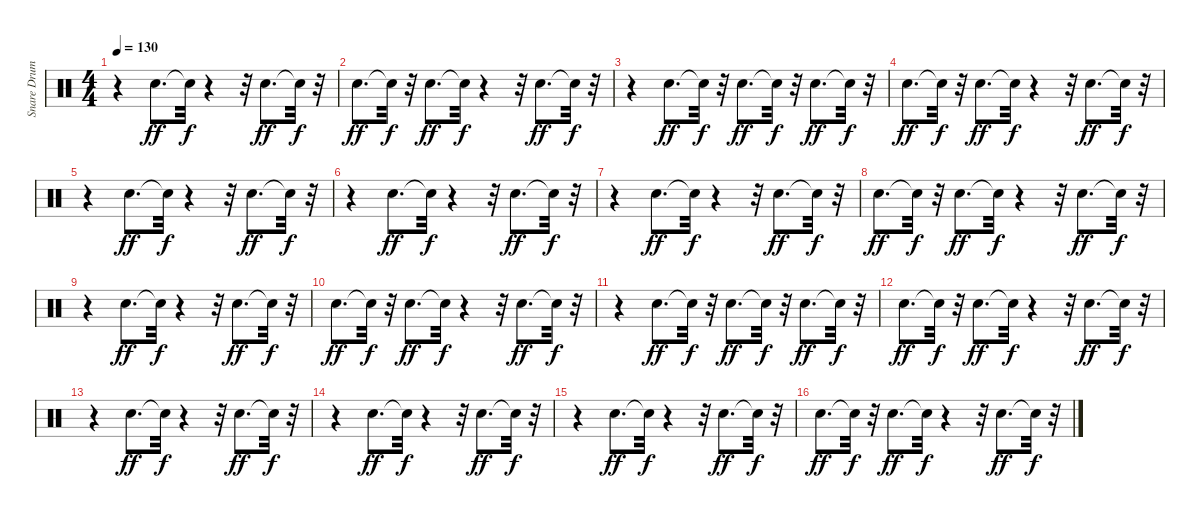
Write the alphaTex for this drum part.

\track ("Snare Drum" "Snare Drum") {instrument percussion}
\staff {score}
\articulation defaults
\ts (4 4)
\tempo 130
\clef neutral
\ks c
r.4{dy f} "Snare (hit) 2".8{d dy ff} "Snare (hit)"{t}.32{dy f} r.4 r.32 "Snare (hit) 2".8{d dy ff} "Snare (hit)"{t}.32{dy f} r.32 |
"Snare (hit) 2".8{d dy ff} "Snare (hit)"{t}.32{dy f} r.32 "Snare (hit) 2".8{d dy ff} "Snare (hit)"{t}.32{dy f} r.4 r.32 "Snare (hit) 2".8{d dy ff} "Snare (hit)"{t}.32{dy f} r.32 |
r.4 "Snare (hit) 2".8{d dy ff} "Snare (hit)"{t}.32{dy f} r.32 "Snare (hit) 2".8{d dy ff} "Snare (hit)"{t}.32{dy f} r.32 "Snare (hit) 2".8{d dy ff} "Snare (hit)"{t}.32{dy f} r.32 |
"Snare (hit) 2".8{d dy ff} "Snare (hit)"{t}.32{dy f} r.32 "Snare (hit) 2".8{d dy ff} "Snare (hit)"{t}.32{dy f} r.4 r.32 "Snare (hit) 2".8{d dy ff} "Snare (hit)"{t}.32{dy f} r.32 |
r.4 "Snare (hit) 2".8{d dy ff} "Snare (hit)"{t}.32{dy f} r.4 r.32 "Snare (hit) 2".8{d dy ff} "Snare (hit)"{t}.32{dy f} r.32 |
r.4 "Snare (hit) 2".8{d dy ff} "Snare (hit)"{t}.32{dy f} r.4 r.32 "Snare (hit) 2".8{d dy ff} "Snare (hit)"{t}.32{dy f} r.32 |
r.4 "Snare (hit) 2".8{d dy ff} "Snare (hit)"{t}.32{dy f} r.4 r.32 "Snare (hit) 2".8{d dy ff} "Snare (hit)"{t}.32{dy f} r.32 |
"Snare (hit) 2".8{d dy ff} "Snare (hit)"{t}.32{dy f} r.32 "Snare (hit) 2".8{d dy ff} "Snare (hit)"{t}.32{dy f} r.4 r.32 "Snare (hit) 2".8{d dy ff} "Snare (hit)"{t}.32{dy f} r.32 |
r.4 "Snare (hit) 2".8{d dy ff} "Snare (hit)"{t}.32{dy f} r.4 r.32 "Snare (hit) 2".8{d dy ff} "Snare (hit)"{t}.32{dy f} r.32 |
"Snare (hit) 2".8{d dy ff} "Snare (hit)"{t}.32{dy f} r.32 "Snare (hit) 2".8{d dy ff} "Snare (hit)"{t}.32{dy f} r.4 r.32 "Snare (hit) 2".8{d dy ff} "Snare (hit)"{t}.32{dy f} r.32 |
r.4 "Snare (hit) 2".8{d dy ff} "Snare (hit)"{t}.32{dy f} r.32 "Snare (hit) 2".8{d dy ff} "Snare (hit)"{t}.32{dy f} r.32 "Snare (hit) 2".8{d dy ff} "Snare (hit)"{t}.32{dy f} r.32 |
"Snare (hit) 2".8{d dy ff} "Snare (hit)"{t}.32{dy f} r.32 "Snare (hit) 2".8{d dy ff} "Snare (hit)"{t}.32{dy f} r.4 r.32 "Snare (hit) 2".8{d dy ff} "Snare (hit)"{t}.32{dy f} r.32 |
r.4 "Snare (hit) 2".8{d dy ff} "Snare (hit)"{t}.32{dy f} r.4 r.32 "Snare (hit) 2".8{d dy ff} "Snare (hit)"{t}.32{dy f} r.32 |
r.4 "Snare (hit) 2".8{d dy ff} "Snare (hit)"{t}.32{dy f} r.4 r.32 "Snare (hit) 2".8{d dy ff} "Snare (hit)"{t}.32{dy f} r.32 |
r.4 "Snare (hit) 2".8{d dy ff} "Snare (hit)"{t}.32{dy f} r.4 r.32 "Snare (hit) 2".8{d dy ff} "Snare (hit)"{t}.32{dy f} r.32 |
"Snare (hit) 2".8{d dy ff} "Snare (hit)"{t}.32{dy f} r.32 "Snare (hit) 2".8{d dy ff} "Snare (hit)"{t}.32{dy f} r.4 r.32 "Snare (hit) 2".8{d dy ff} "Snare (hit)"{t}.32{dy f} r.32
